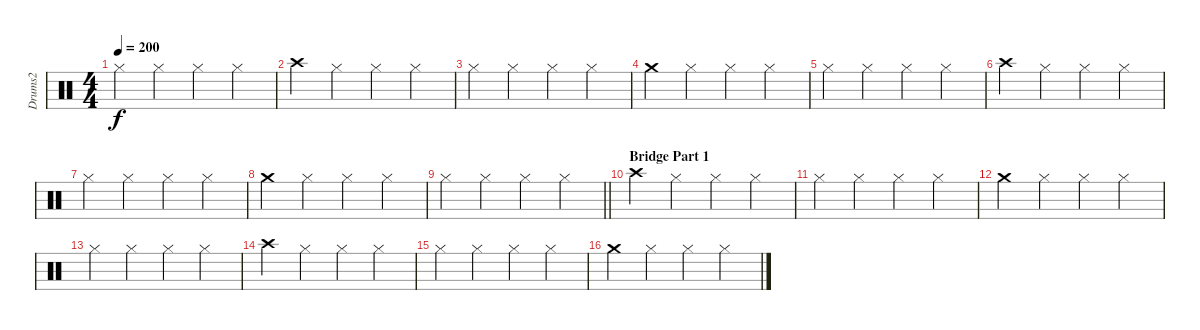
\track ("Drums2" "Drums2") {instrument percussion}
\staff {score}
\articulation defaults
\ts (4 4)
\tempo 200
\clef neutral
\ks c "Hi-Hat (closed)".4{dy f} "Hi-Hat (closed)".4 "Hi-Hat (closed)".4 "Hi-Hat (closed)".4
|
"Crash high (hit)".4 "Hi-Hat (closed)".4 "Hi-Hat (closed)".4 "Hi-Hat (closed)".4 |
"Hi-Hat (closed)".4 "Hi-Hat (closed)".4 "Hi-Hat (closed)".4 "Hi-Hat (closed)".4 |
"Crash medium (hit)".4 "Hi-Hat (closed)".4 "Hi-Hat (closed)".4 "Hi-Hat (closed)".4 |
"Hi-Hat (closed)".4 "Hi-Hat (closed)".4 "Hi-Hat (closed)".4 "Hi-Hat (closed)".4 |
"Crash high (hit)".4 "Hi-Hat (closed)".4 "Hi-Hat (closed)".4 "Hi-Hat (closed)".4 |
"Hi-Hat (closed)".4 "Hi-Hat (closed)".4 "Hi-Hat (closed)".4 "Hi-Hat (closed)".4 |
"Crash medium (hit)".4 "Hi-Hat (closed)".4 "Hi-Hat (closed)".4 "Hi-Hat (closed)".4 |
\barLineRight lightlight "Hi-Hat (closed)".4 "Hi-Hat (closed)".4 "Hi-Hat (closed)".4 "Hi-Hat (closed)".4
|
\section ("" "Bridge Part 1")
"Crash high (hit)".4 "Hi-Hat (closed)".4 "Hi-Hat (closed)".4 "Hi-Hat (closed)".4 |
"Hi-Hat (closed)".4 "Hi-Hat (closed)".4 "Hi-Hat (closed)".4 "Hi-Hat (closed)".4 |
"Crash medium (hit)".4 "Hi-Hat (closed)".4 "Hi-Hat (closed)".4 "Hi-Hat (closed)".4 |
"Hi-Hat (closed)".4 "Hi-Hat (closed)".4 "Hi-Hat (closed)".4 "Hi-Hat (closed)".4 |
"Crash high (hit)".4 "Hi-Hat (closed)".4 "Hi-Hat (closed)".4 "Hi-Hat (closed)".4 |
"Hi-Hat (closed)".4 "Hi-Hat (closed)".4 "Hi-Hat (closed)".4 "Hi-Hat (closed)".4 |
"Crash medium (hit)".4 "Hi-Hat (closed)".4 "Hi-Hat (closed)".4 "Hi-Hat (closed)".4
